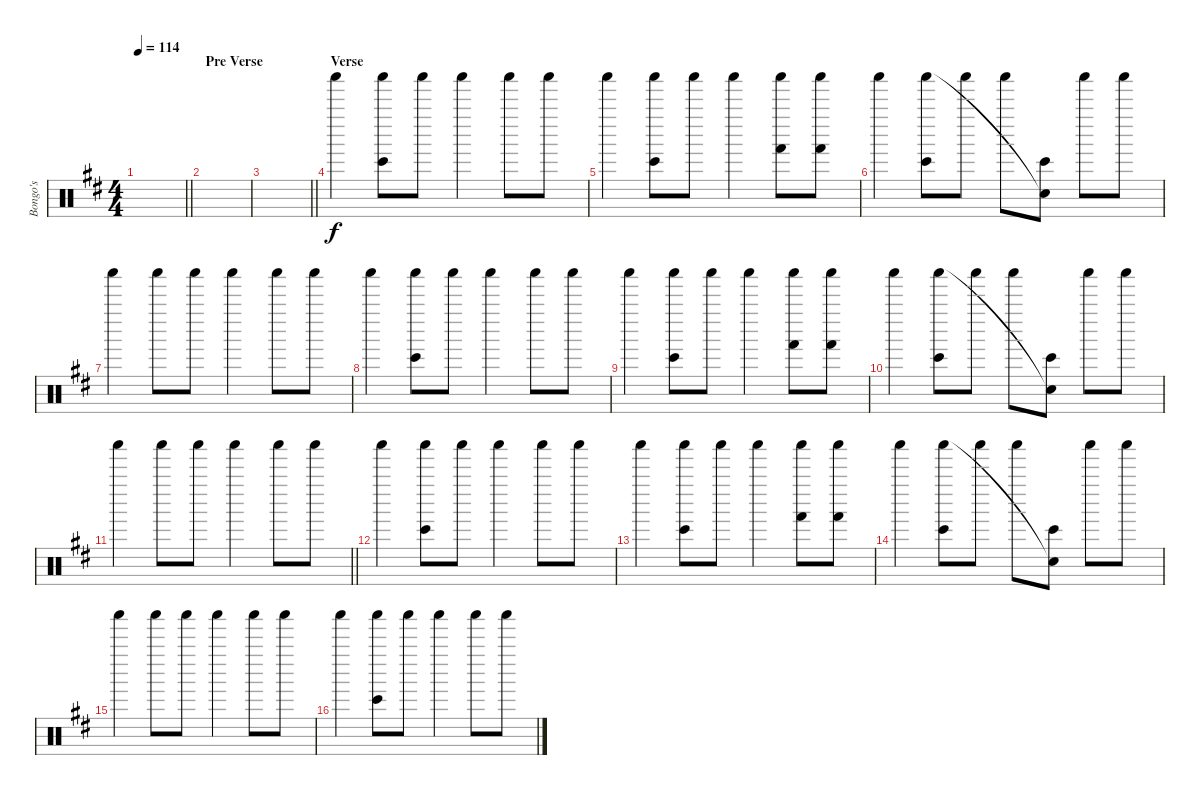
\track ("Bongo's" "Bongo's") {instrument percussion}
\staff {score}
\articulation defaults
\ts (4 4)
\tempo 114
\clef neutral
\barLineRight lightlight
\ks bminor
|
\section ("" "Pre Verse")
|
\barLineRight lightlight
|
\section ("" "Verse")
"Shaker (hit)".4 ("Bongo High (hit)" "Shaker (hit)").8 "Shaker (hit)".8 "Shaker (hit)".4 "Shaker (hit)".8 "Shaker (hit)".8 |
"Shaker (hit)".4 ("Bongo High (hit)" "Shaker (hit)").8 "Shaker (hit)".8 "Shaker (hit)".4 ("Hand (hit)" "Shaker (hit)").8 ("Hand (hit)" "Shaker (hit)").8 |
"Shaker (hit)".4 ("Bongo High (hit)" "Shaker (hit)").8 "Shaker (hit)".8 "Shaker (hit)".8 ("Bongo High (hit)" "Snare (hit)"{t}).8 "Shaker (hit)".8 "Shaker (hit)".8 |
"Shaker (hit)".4 "Shaker (hit)".8 "Shaker (hit)".8 "Shaker (hit)".4 "Shaker (hit)".8 "Shaker (hit)".8 |
"Shaker (hit)".4 ("Bongo High (hit)" "Shaker (hit)").8 "Shaker (hit)".8 "Shaker (hit)".4 "Shaker (hit)".8 "Shaker (hit)".8 |
"Shaker (hit)".4 ("Bongo High (hit)" "Shaker (hit)").8 "Shaker (hit)".8 "Shaker (hit)".4 ("Hand (hit)" "Shaker (hit)").8 ("Hand (hit)" "Shaker (hit)").8 |
"Shaker (hit)".4 ("Bongo High (hit)" "Shaker (hit)").8 "Shaker (hit)".8 "Shaker (hit)".8 ("Bongo High (hit)" "Snare (hit)"{t}).8 "Shaker (hit)".8 "Shaker (hit)".8 |
\barLineRight lightlight "Shaker (hit)".4 "Shaker (hit)".8 "Shaker (hit)".8 "Shaker (hit)".4 "Shaker (hit)".8 "Shaker (hit)".8
|
"Shaker (hit)".4 ("Bongo High (hit)" "Shaker (hit)").8 "Shaker (hit)".8 "Shaker (hit)".4 "Shaker (hit)".8 "Shaker (hit)".8 |
"Shaker (hit)".4 ("Bongo High (hit)" "Shaker (hit)").8 "Shaker (hit)".8 "Shaker (hit)".4 ("Hand (hit)" "Shaker (hit)").8 ("Hand (hit)" "Shaker (hit)").8 |
"Shaker (hit)".4 ("Bongo High (hit)" "Shaker (hit)").8 "Shaker (hit)".8 "Shaker (hit)".8 ("Bongo High (hit)" "Snare (hit)"{t}).8 "Shaker (hit)".8 "Shaker (hit)".8 |
"Shaker (hit)".4 "Shaker (hit)".8 "Shaker (hit)".8 "Shaker (hit)".4 "Shaker (hit)".8 "Shaker (hit)".8 |
"Shaker (hit)".4 ("Bongo High (hit)" "Shaker (hit)").8 "Shaker (hit)".8 "Shaker (hit)".4 "Shaker (hit)".8 "Shaker (hit)".8
